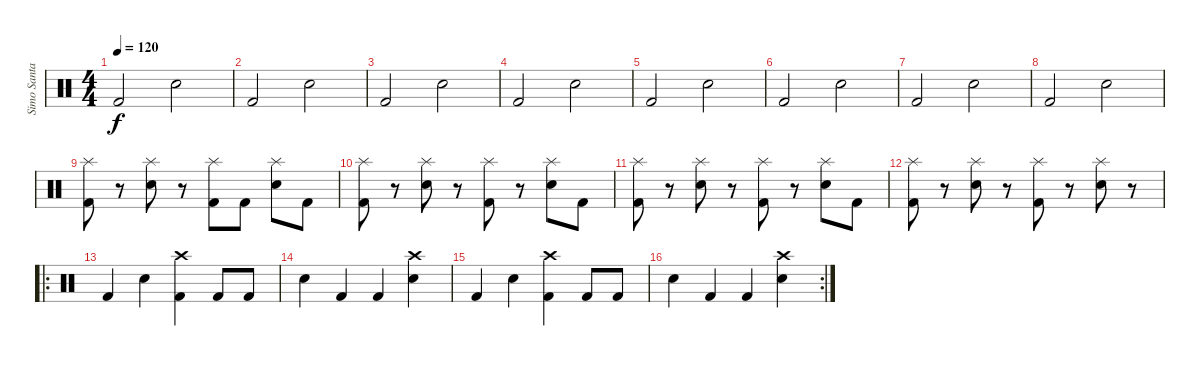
\track ("Simo Santapukki" "Simo Santa") {instrument percussion}
\staff {score}
\articulation defaults
\ts (4 4)
\tempo 120
\clef neutral
\ks c "Kick (hit) 2".2{dy f} "Electric Snare (hit)".2
|
"Kick (hit) 2".2 "Electric Snare (hit)".2 |
"Kick (hit) 2".2 "Electric Snare (hit)".2 |
"Kick (hit) 2".2 "Electric Snare (hit)".2 |
"Kick (hit) 2".2 "Electric Snare (hit)".2 |
"Kick (hit) 2".2 "Electric Snare (hit)".2 |
"Kick (hit) 2".2 "Electric Snare (hit)".2 |
"Kick (hit) 2".2 "Electric Snare (hit)".2 |
("Kick (hit) 2" "Splash (hit)").8 r.8 ("Electric Snare (hit)" "Splash (hit)").8 r.8 ("Kick (hit) 2" "Splash (hit)").8 "Kick (hit) 2".8 ("Electric Snare (hit)" "Splash (hit)").8 "Kick (hit) 2".8 |
("Kick (hit) 2" "Splash (hit)").8 r.8 ("Electric Snare (hit)" "Splash (hit)").8 r.8 ("Kick (hit) 2" "Splash (hit)").8 r.8 ("Electric Snare (hit)" "Splash (hit)").8 "Kick (hit) 2".8 |
("Kick (hit) 2" "Splash (hit)").8 r.8 ("Electric Snare (hit)" "Splash (hit)").8 r.8 ("Kick (hit) 2" "Splash (hit)").8 r.8 ("Electric Snare (hit)" "Splash (hit)").8 "Kick (hit) 2".8 |
("Kick (hit) 2" "Splash (hit)").8 r.8 ("Electric Snare (hit)" "Splash (hit)").8 r.8 ("Kick (hit) 2" "Splash (hit)").8 r.8 ("Electric Snare (hit)" "Splash (hit)").8 r.8 |
\ro "Kick (hit) 2".4 "Electric Snare (hit)".4
("Kick (hit) 2" "Crash high (hit)").4 "Kick (hit) 2".8 "Kick (hit) 2".8 |
"Electric Snare (hit)".4 "Kick (hit) 2".4 "Kick (hit) 2".4 ("Electric Snare (hit)" "Crash high (hit)").4 |
"Kick (hit) 2".4 "Electric Snare (hit)".4 ("Kick (hit) 2" "Crash high (hit)").4 "Kick (hit) 2".8 "Kick (hit) 2".8 |
\rc 2 "Electric Snare (hit)".4 "Kick (hit) 2".4 "Kick (hit) 2".4
("Electric Snare (hit)" "Crash high (hit)").4
